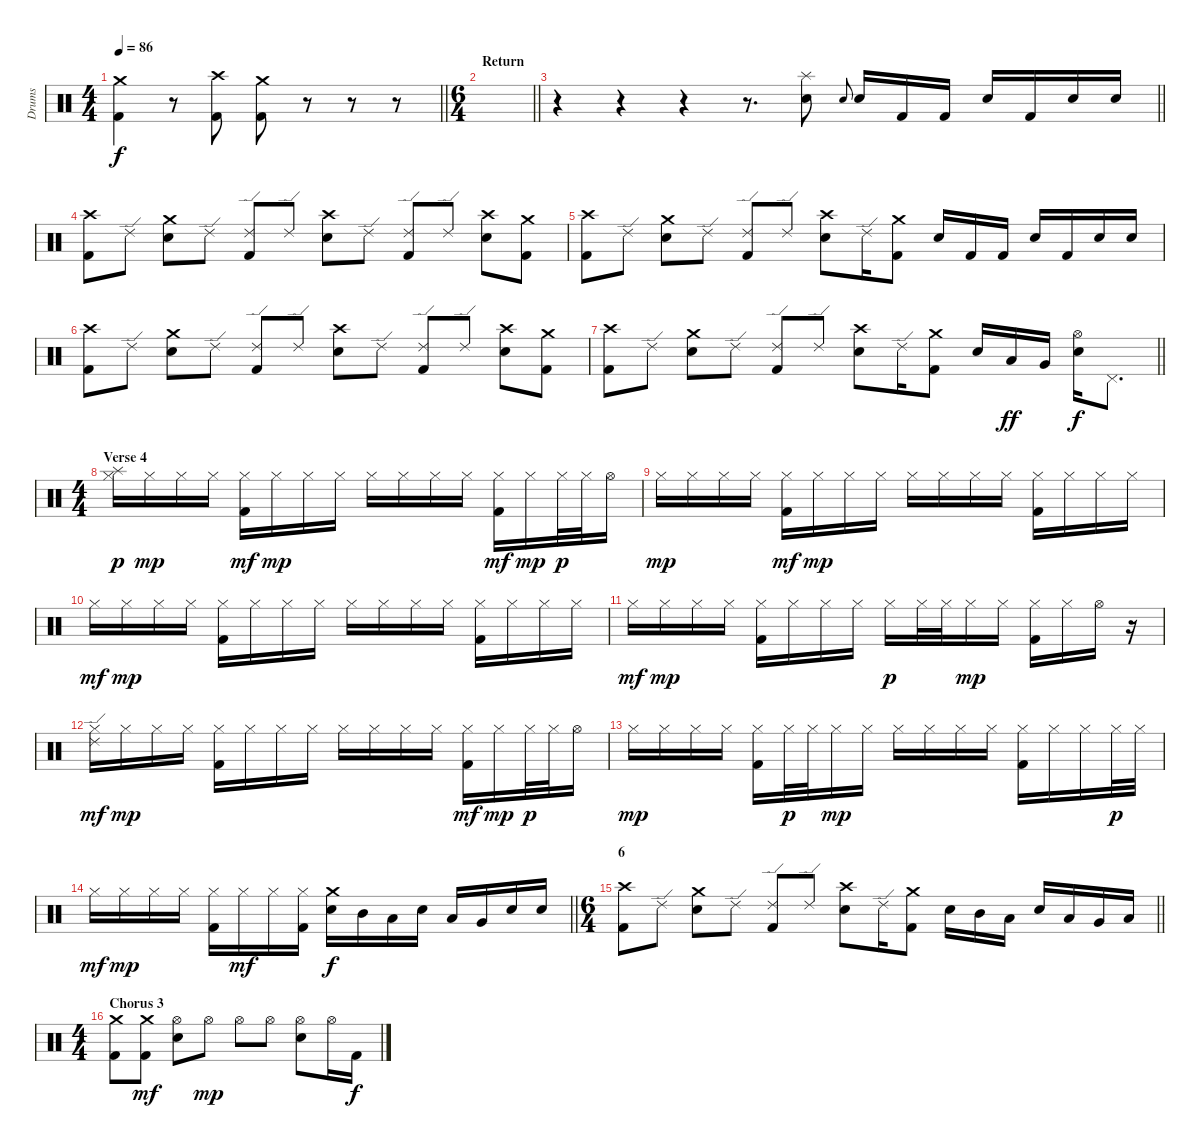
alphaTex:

\track ("Drums" "Drums") {instrument percussion}
\staff {score}
\articulation defaults
\ts (4 4)
\tempo 86
\clef neutral
\barLineRight lightlight
\ks c
("Crash medium (hit)" "Kick (hit) 2").4{dy f} r.8 ("Crash high (hit)" "Kick (hit) 2").8 ("Crash medium (hit)" "Kick (hit) 2").8 r.8 r.8 r.8 |
\ts (6 4)
\section ("" "Return")
\barLineRight lightlight
|
\barLineRight lightlight
r.4 r.4 r.4 r.8{d} ("Splash (hit)" "Electric Snare (hit)").8 "Electric Snare (hit)".8{gr onbeat} "Electric Snare (hit)".16 "Kick (hit) 2".16 "Kick (hit) 2".16 "Electric Snare (hit)".16 "Kick (hit) 2".16 "Electric Snare (hit)".16 "Electric Snare (hit)".16 |
("Crash high (hit)" "Kick (hit) 2").8 "Ride (edge) 2".8 ("Crash medium (hit)" "Electric Snare (hit)").8 "Ride (edge) 2".8 ("Ride (edge) 2" "Kick (hit) 2").8 "Ride (edge) 2".8 ("Crash high (hit)" "Electric Snare (hit)").8 "Ride (edge) 2".8 ("Ride (edge) 2" "Kick (hit) 2").8 "Ride (edge) 2".8 ("Crash high (hit)" "Electric Snare (hit)").8 ("Crash medium (hit)" "Kick (hit) 2").8 |
("Crash high (hit)" "Kick (hit) 2").8 "Ride (edge) 2".8 ("Crash medium (hit)" "Electric Snare (hit)").8 "Ride (edge) 2".8 ("Ride (edge) 2" "Kick (hit) 2").8 "Ride (edge) 2".8 ("Crash high (hit)" "Electric Snare (hit)").8 "Ride (edge) 2".16 ("Crash medium (hit)" "Kick (hit) 2").8 "Electric Snare (hit)".16 "Kick (hit) 2".16 "Kick (hit) 2".16 "Electric Snare (hit)".16 "Kick (hit) 2".16 "Electric Snare (hit)".16 "Electric Snare (hit)".16 |
("Crash high (hit)" "Kick (hit) 2").8 "Ride (edge) 2".8 ("Crash medium (hit)" "Electric Snare (hit)").8 "Ride (edge) 2".8 ("Ride (edge) 2" "Kick (hit) 2").8 "Ride (edge) 2".8 ("Crash high (hit)" "Electric Snare (hit)").8 "Ride (edge) 2".8 ("Ride (edge) 2" "Kick (hit) 2").8 "Ride (edge) 2".8 ("Crash high (hit)" "Electric Snare (hit)").8 ("Crash medium (hit)" "Kick (hit) 2").8 |
\barLineRight lightlight
("Crash high (hit)" "Kick (hit) 2").8 "Ride (edge) 2".8 ("Crash medium (hit)" "Electric Snare (hit)").8 "Ride (edge) 2".8 ("Ride (edge) 2" "Kick (hit) 2").8 "Ride (edge) 2".8 ("Crash high (hit)" "Electric Snare (hit)").8 "Ride (edge) 2".16 ("Crash medium (hit)" "Kick (hit) 2").8 "Electric Snare (hit)".16 "Low Tom (hit)".16{dy ff} "Very Low Tom (hit)".16 ("Hi-Hat (open)" "Electric Snare (hit)").16{dy f} "Pedal Hi-Hat (hit)".8{d} |
\ts (4 4)
\section ("" "Verse 4")
("Hi-Hat (closed)" "Splash (hit)").16{dy p} "Hi-Hat (closed)".16{dy mp} "Hi-Hat (closed)".16 "Hi-Hat (closed)".16 ("Hi-Hat (closed)" "Kick (hit) 2").16{dy mf} "Hi-Hat (closed)".16{dy mp} "Hi-Hat (closed)".16 "Hi-Hat (closed)".16 "Hi-Hat (closed)".16 "Hi-Hat (closed)".16 "Hi-Hat (closed)".16 "Hi-Hat (closed)".16 ("Hi-Hat (closed)" "Kick (hit) 2").16{dy mf} "Hi-Hat (closed)".16{dy mp} "Hi-Hat (closed)".32{dy p} "Hi-Hat (closed)".32 "Hi-Hat (open)".16 |
"Hi-Hat (closed)".16{dy mp} "Hi-Hat (closed)".16 "Hi-Hat (closed)".16 "Hi-Hat (closed)".16 ("Hi-Hat (closed)" "Kick (hit) 2").16{dy mf} "Hi-Hat (closed)".16{dy mp} "Hi-Hat (closed)".16 "Hi-Hat (closed)".16 "Hi-Hat (closed)".16 "Hi-Hat (closed)".16 "Hi-Hat (closed)".16 "Hi-Hat (closed)".16 ("Hi-Hat (closed)" "Kick (hit) 2").16 "Hi-Hat (closed)".16 "Hi-Hat (closed)".16 "Hi-Hat (closed)".16 |
"Hi-Hat (closed)".16{dy mf} "Hi-Hat (closed)".16{dy mp} "Hi-Hat (closed)".16 "Hi-Hat (closed)".16 ("Hi-Hat (closed)" "Kick (hit) 2").16 "Hi-Hat (closed)".16 "Hi-Hat (closed)".16 "Hi-Hat (closed)".16 "Hi-Hat (closed)".16 "Hi-Hat (closed)".16 "Hi-Hat (closed)".16 "Hi-Hat (closed)".16 ("Hi-Hat (closed)" "Kick (hit) 2").16 "Hi-Hat (closed)".16 "Hi-Hat (closed)".16 "Hi-Hat (closed)".16 |
"Hi-Hat (closed)".16{dy mf} "Hi-Hat (closed)".16{dy mp} "Hi-Hat (closed)".16 "Hi-Hat (closed)".16 ("Hi-Hat (closed)" "Kick (hit) 2").16 "Hi-Hat (closed)".16 "Hi-Hat (closed)".16 "Hi-Hat (closed)".16 "Hi-Hat (closed)".16{dy p} "Hi-Hat (closed)".32 "Hi-Hat (closed)".32 "Hi-Hat (closed)".16{dy mp} "Hi-Hat (closed)".16 ("Hi-Hat (closed)" "Kick (hit) 2").16 "Hi-Hat (closed)".16 "Hi-Hat (open)".16 r.16 |
("Ride (edge) 2" "Hi-Hat (closed)").16{dy mf} "Hi-Hat (closed)".16{dy mp} "Hi-Hat (closed)".16 "Hi-Hat (closed)".16 ("Hi-Hat (closed)" "Kick (hit) 2").16 "Hi-Hat (closed)".16 "Hi-Hat (closed)".16 "Hi-Hat (closed)".16 "Hi-Hat (closed)".16 "Hi-Hat (closed)".16 "Hi-Hat (closed)".16 "Hi-Hat (closed)".16 ("Hi-Hat (closed)" "Kick (hit) 2").16{dy mf} "Hi-Hat (closed)".16{dy mp} "Hi-Hat (closed)".32{dy p} "Hi-Hat (closed)".32 "Hi-Hat (open)".16 |
"Hi-Hat (closed)".16{dy mp} "Hi-Hat (closed)".16 "Hi-Hat (closed)".16 "Hi-Hat (closed)".16 ("Hi-Hat (closed)" "Kick (hit) 2").16 "Hi-Hat (closed)".32{dy p} "Hi-Hat (closed)".32 "Hi-Hat (closed)".16{dy mp} "Hi-Hat (closed)".16 "Hi-Hat (closed)".16 "Hi-Hat (closed)".16 "Hi-Hat (closed)".16 "Hi-Hat (closed)".16 ("Hi-Hat (closed)" "Kick (hit) 2").16 "Hi-Hat (closed)".16 "Hi-Hat (closed)".16 "Hi-Hat (closed)".32{dy p} "Hi-Hat (closed)".32 |
\barLineRight lightlight "Hi-Hat (closed)".16{dy mf} "Hi-Hat (closed)".16{dy mp} "Hi-Hat (closed)".16 "Hi-Hat (closed)".16
("Hi-Hat (closed)" "Kick (hit) 2").16 "Hi-Hat (closed)".16{dy mf} "Hi-Hat (closed)".16 ("Hi-Hat (closed)" "Kick (hit) 2").16 ("Crash medium (hit)" "Electric Snare (hit)").16{dy f} "Mid Tom (hit)".16 "Low Tom (hit)".16 "Electric Snare (hit)".16 "Low Tom (hit)".16 "Very Low Tom (hit)".16 "Electric Snare (hit)".16 "Electric Snare (hit)".16 |
\ts (6 4)
\section ("" "6")
\barLineRight lightlight
("Crash high (hit)" "Kick (hit) 2").8 "Ride (edge) 2".8 ("Crash medium (hit)" "Electric Snare (hit)").8 "Ride (edge) 2".8 ("Ride (edge) 2" "Kick (hit) 2").8 "Ride (edge) 2".8 ("Crash high (hit)" "Electric Snare (hit)").8 "Ride (edge) 2".16 ("Crash medium (hit)" "Kick (hit) 2").8 "Electric Snare (hit)".16 "Mid Tom (hit)".16 "Low Tom (hit)".16 "Electric Snare (hit)".16 "Low Tom (hit)".16 "Very Low Tom (hit)".16 "Low Floor Tom (hit)".16 |
\ts (4 4)
\section ("" "Chorus 3")
("Crash medium (hit)" "Kick (hit) 2").8 ("Crash medium (hit)" "Kick (hit) 2").8{dy mf} ("Hi-Hat (open)" "Electric Snare (hit)").8 "Hi-Hat (open)".8{dy mp} "Hi-Hat (open)".8 "Hi-Hat (open)".8 ("Hi-Hat (open)" "Electric Snare (hit)").8 "Hi-Hat (open)".16 "Kick (hit) 2".16{dy f}
